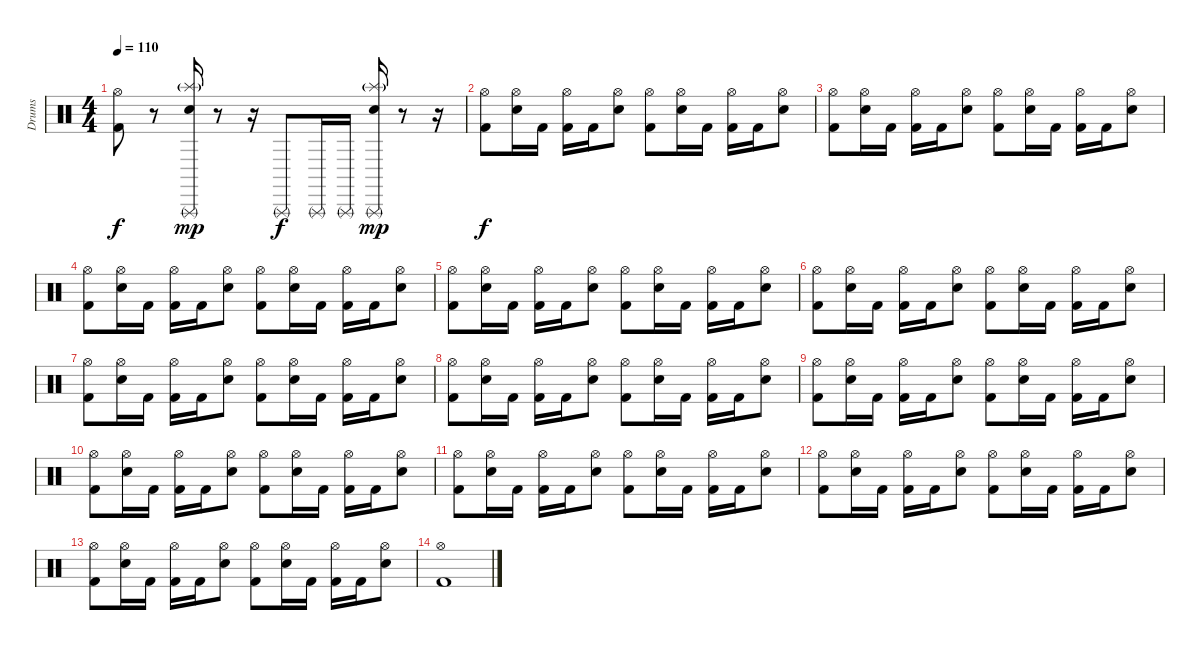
\track ("Drums" "Drums") {instrument percussion}
\staff {score}
\articulation defaults
\ts (4 4)
\tempo 110
\clef neutral
\ks c
("Hi-Hat (open)" "Kick (hit) 2").8{dy f} r.8 ("Triangle (rnute)" "Splash (hit)"{g} "Hand Clap (hit)").16{dy mp} r.8 r.16 "Triangle (rnute)".8{dy f} "Triangle (rnute)".16 "Triangle (rnute)".16 ("Triangle (rnute)" "Splash (hit)"{g} "Hand Clap (hit)").16{dy mp} r.8 r.16 |
("Hi-Hat (open)" "Kick (hit) 2").8{dy f} ("Hi-Hat (open)" "Snare (hit) 2").16 "Kick (hit) 2".16 ("Hi-Hat (open)" "Kick (hit) 2").16 "Kick (hit) 2".16 ("Hi-Hat (open)" "Snare (hit) 2").8 ("Hi-Hat (open)" "Kick (hit) 2").8 ("Hi-Hat (open)" "Snare (hit) 2").16 "Kick (hit) 2".16 ("Hi-Hat (open)" "Kick (hit) 2").16 "Kick (hit) 2".16 ("Hi-Hat (open)" "Snare (hit) 2").8 |
("Hi-Hat (open)" "Kick (hit) 2").8 ("Hi-Hat (open)" "Snare (hit) 2").16 "Kick (hit) 2".16 ("Hi-Hat (open)" "Kick (hit) 2").16 "Kick (hit) 2".16 ("Hi-Hat (open)" "Snare (hit) 2").8 ("Hi-Hat (open)" "Kick (hit) 2").8 ("Hi-Hat (open)" "Snare (hit) 2").16 "Kick (hit) 2".16 ("Hi-Hat (open)" "Kick (hit) 2").16 "Kick (hit) 2".16 ("Hi-Hat (open)" "Snare (hit) 2").8 |
("Hi-Hat (open)" "Kick (hit) 2").8 ("Hi-Hat (open)" "Snare (hit) 2").16 "Kick (hit) 2".16 ("Hi-Hat (open)" "Kick (hit) 2").16 "Kick (hit) 2".16 ("Hi-Hat (open)" "Snare (hit) 2").8 ("Hi-Hat (open)" "Kick (hit) 2").8 ("Hi-Hat (open)" "Snare (hit) 2").16 "Kick (hit) 2".16 ("Hi-Hat (open)" "Kick (hit) 2").16 "Kick (hit) 2".16 ("Hi-Hat (open)" "Snare (hit) 2").8 |
("Hi-Hat (open)" "Kick (hit) 2").8 ("Hi-Hat (open)" "Snare (hit) 2").16 "Kick (hit) 2".16 ("Hi-Hat (open)" "Kick (hit) 2").16 "Kick (hit) 2".16 ("Hi-Hat (open)" "Snare (hit) 2").8 ("Hi-Hat (open)" "Kick (hit) 2").8 ("Hi-Hat (open)" "Snare (hit) 2").16 "Kick (hit) 2".16 ("Hi-Hat (open)" "Kick (hit) 2").16 "Kick (hit) 2".16 ("Hi-Hat (open)" "Snare (hit) 2").8 |
("Hi-Hat (open)" "Kick (hit) 2").8 ("Hi-Hat (open)" "Snare (hit) 2").16 "Kick (hit) 2".16 ("Hi-Hat (open)" "Kick (hit) 2").16 "Kick (hit) 2".16 ("Hi-Hat (open)" "Snare (hit) 2").8 ("Hi-Hat (open)" "Kick (hit) 2").8 ("Hi-Hat (open)" "Snare (hit) 2").16 "Kick (hit) 2".16 ("Hi-Hat (open)" "Kick (hit) 2").16 "Kick (hit) 2".16 ("Hi-Hat (open)" "Snare (hit) 2").8 |
("Hi-Hat (open)" "Kick (hit) 2").8 ("Hi-Hat (open)" "Snare (hit) 2").16 "Kick (hit) 2".16 ("Hi-Hat (open)" "Kick (hit) 2").16 "Kick (hit) 2".16 ("Hi-Hat (open)" "Snare (hit) 2").8 ("Hi-Hat (open)" "Kick (hit) 2").8 ("Hi-Hat (open)" "Snare (hit) 2").16 "Kick (hit) 2".16 ("Hi-Hat (open)" "Kick (hit) 2").16 "Kick (hit) 2".16 ("Hi-Hat (open)" "Snare (hit) 2").8 |
("Hi-Hat (open)" "Kick (hit) 2").8 ("Hi-Hat (open)" "Snare (hit) 2").16 "Kick (hit) 2".16 ("Hi-Hat (open)" "Kick (hit) 2").16 "Kick (hit) 2".16 ("Hi-Hat (open)" "Snare (hit) 2").8 ("Hi-Hat (open)" "Kick (hit) 2").8 ("Hi-Hat (open)" "Snare (hit) 2").16 "Kick (hit) 2".16 ("Hi-Hat (open)" "Kick (hit) 2").16 "Kick (hit) 2".16 ("Hi-Hat (open)" "Snare (hit) 2").8 |
("Hi-Hat (open)" "Kick (hit) 2").8 ("Hi-Hat (open)" "Snare (hit) 2").16 "Kick (hit) 2".16 ("Hi-Hat (open)" "Kick (hit) 2").16 "Kick (hit) 2".16 ("Hi-Hat (open)" "Snare (hit) 2").8 ("Hi-Hat (open)" "Kick (hit) 2").8 ("Hi-Hat (open)" "Snare (hit) 2").16 "Kick (hit) 2".16 ("Hi-Hat (open)" "Kick (hit) 2").16 "Kick (hit) 2".16 ("Hi-Hat (open)" "Snare (hit) 2").8 |
("Hi-Hat (open)" "Kick (hit) 2").8 ("Hi-Hat (open)" "Snare (hit) 2").16 "Kick (hit) 2".16 ("Hi-Hat (open)" "Kick (hit) 2").16 "Kick (hit) 2".16 ("Hi-Hat (open)" "Snare (hit) 2").8 ("Hi-Hat (open)" "Kick (hit) 2").8 ("Hi-Hat (open)" "Snare (hit) 2").16 "Kick (hit) 2".16 ("Hi-Hat (open)" "Kick (hit) 2").16 "Kick (hit) 2".16 ("Hi-Hat (open)" "Snare (hit) 2").8 |
("Hi-Hat (open)" "Kick (hit) 2").8 ("Hi-Hat (open)" "Snare (hit) 2").16 "Kick (hit) 2".16 ("Hi-Hat (open)" "Kick (hit) 2").16 "Kick (hit) 2".16 ("Hi-Hat (open)" "Snare (hit) 2").8 ("Hi-Hat (open)" "Kick (hit) 2").8 ("Hi-Hat (open)" "Snare (hit) 2").16 "Kick (hit) 2".16 ("Hi-Hat (open)" "Kick (hit) 2").16 "Kick (hit) 2".16 ("Hi-Hat (open)" "Snare (hit) 2").8 |
("Hi-Hat (open)" "Kick (hit) 2").8 ("Hi-Hat (open)" "Snare (hit) 2").16 "Kick (hit) 2".16 ("Hi-Hat (open)" "Kick (hit) 2").16 "Kick (hit) 2".16 ("Hi-Hat (open)" "Snare (hit) 2").8 ("Hi-Hat (open)" "Kick (hit) 2").8 ("Hi-Hat (open)" "Snare (hit) 2").16 "Kick (hit) 2".16 ("Hi-Hat (open)" "Kick (hit) 2").16 "Kick (hit) 2".16 ("Hi-Hat (open)" "Snare (hit) 2").8 |
("Hi-Hat (open)" "Kick (hit) 2").8 ("Hi-Hat (open)" "Snare (hit) 2").16 "Kick (hit) 2".16 ("Hi-Hat (open)" "Kick (hit) 2").16 "Kick (hit) 2".16 ("Hi-Hat (open)" "Snare (hit) 2").8 ("Hi-Hat (open)" "Kick (hit) 2").8 ("Hi-Hat (open)" "Snare (hit) 2").16 "Kick (hit) 2".16 ("Hi-Hat (open)" "Kick (hit) 2").16 "Kick (hit) 2".16 ("Hi-Hat (open)" "Snare (hit) 2").8 |
("Hi-Hat (open)" "Kick (hit) 2").1
